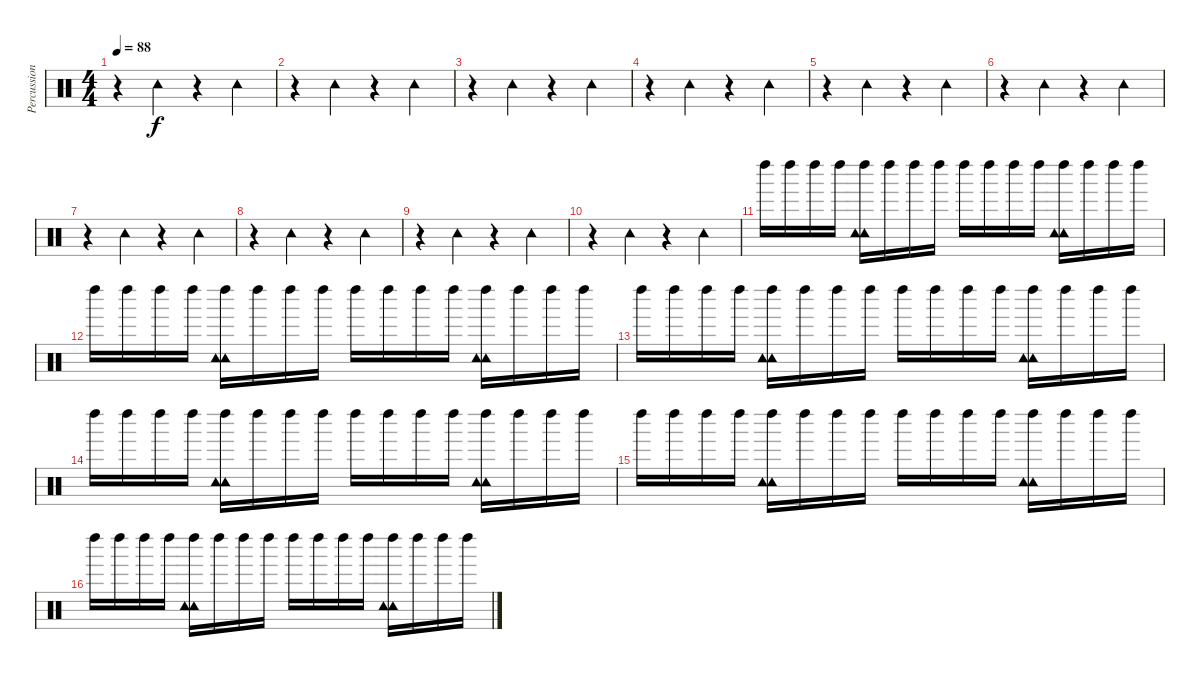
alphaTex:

\track ("Percussioni" "Percussion") {instrument percussion}
\staff {score}
\articulation defaults
\ts (4 4)
\tempo 88
\clef neutral
\ks c
r.4{dy f} "Tambourine (hit)".4 r.4 "Tambourine (hit)".4 |
r.4 "Tambourine (hit)".4 r.4 "Tambourine (hit)".4 |
r.4 "Tambourine (hit)".4 r.4 "Tambourine (hit)".4 |
r.4 "Tambourine (hit)".4 r.4 "Tambourine (hit)".4 |
r.4 "Tambourine (hit)".4 r.4 "Tambourine (hit)".4 |
r.4 "Tambourine (hit)".4 r.4 "Tambourine (hit)".4 |
r.4 "Tambourine (hit)".4 r.4 "Tambourine (hit)".4 |
r.4 "Tambourine (hit)".4 r.4 "Tambourine (hit)".4 |
r.4 "Tambourine (hit)".4 r.4 "Tambourine (hit)".4 |
r.4 "Tambourine (hit)".4 r.4 "Tambourine (hit)".4 |
"Left Maraca (hit)".16 "Left Maraca (hit)".16 "Left Maraca (hit)".16 "Left Maraca (hit)".16 ("Left Maraca (hit)" "Tambourine (hit)" "Tambourine (hit)").16 "Left Maraca (hit)".16 "Left Maraca (hit)".16 "Left Maraca (hit)".16 "Left Maraca (hit)".16 "Left Maraca (hit)".16 "Left Maraca (hit)".16 "Left Maraca (hit)".16 ("Left Maraca (hit)" "Tambourine (hit)" "Tambourine (hit)").16 "Left Maraca (hit)".16 "Left Maraca (hit)".16 "Left Maraca (hit)".16 |
"Left Maraca (hit)".16 "Left Maraca (hit)".16 "Left Maraca (hit)".16 "Left Maraca (hit)".16 ("Left Maraca (hit)" "Tambourine (hit)" "Tambourine (hit)").16 "Left Maraca (hit)".16 "Left Maraca (hit)".16 "Left Maraca (hit)".16 "Left Maraca (hit)".16 "Left Maraca (hit)".16 "Left Maraca (hit)".16 "Left Maraca (hit)".16 ("Left Maraca (hit)" "Tambourine (hit)" "Tambourine (hit)").16 "Left Maraca (hit)".16 "Left Maraca (hit)".16 "Left Maraca (hit)".16 |
"Left Maraca (hit)".16 "Left Maraca (hit)".16 "Left Maraca (hit)".16 "Left Maraca (hit)".16 ("Left Maraca (hit)" "Tambourine (hit)" "Tambourine (hit)").16 "Left Maraca (hit)".16 "Left Maraca (hit)".16 "Left Maraca (hit)".16 "Left Maraca (hit)".16 "Left Maraca (hit)".16 "Left Maraca (hit)".16 "Left Maraca (hit)".16 ("Left Maraca (hit)" "Tambourine (hit)" "Tambourine (hit)").16 "Left Maraca (hit)".16 "Left Maraca (hit)".16 "Left Maraca (hit)".16 |
"Left Maraca (hit)".16 "Left Maraca (hit)".16 "Left Maraca (hit)".16 "Left Maraca (hit)".16 ("Left Maraca (hit)" "Tambourine (hit)" "Tambourine (hit)").16 "Left Maraca (hit)".16 "Left Maraca (hit)".16 "Left Maraca (hit)".16 "Left Maraca (hit)".16 "Left Maraca (hit)".16 "Left Maraca (hit)".16 "Left Maraca (hit)".16 ("Left Maraca (hit)" "Tambourine (hit)" "Tambourine (hit)").16 "Left Maraca (hit)".16 "Left Maraca (hit)".16 "Left Maraca (hit)".16 |
"Left Maraca (hit)".16 "Left Maraca (hit)".16 "Left Maraca (hit)".16 "Left Maraca (hit)".16 ("Left Maraca (hit)" "Tambourine (hit)" "Tambourine (hit)").16 "Left Maraca (hit)".16 "Left Maraca (hit)".16 "Left Maraca (hit)".16 "Left Maraca (hit)".16 "Left Maraca (hit)".16 "Left Maraca (hit)".16 "Left Maraca (hit)".16 ("Left Maraca (hit)" "Tambourine (hit)" "Tambourine (hit)").16 "Left Maraca (hit)".16 "Left Maraca (hit)".16 "Left Maraca (hit)".16 |
"Left Maraca (hit)".16 "Left Maraca (hit)".16 "Left Maraca (hit)".16 "Left Maraca (hit)".16 ("Left Maraca (hit)" "Tambourine (hit)" "Tambourine (hit)").16 "Left Maraca (hit)".16 "Left Maraca (hit)".16 "Left Maraca (hit)".16 "Left Maraca (hit)".16 "Left Maraca (hit)".16 "Left Maraca (hit)".16 "Left Maraca (hit)".16 ("Left Maraca (hit)" "Tambourine (hit)" "Tambourine (hit)").16 "Left Maraca (hit)".16 "Left Maraca (hit)".16 "Left Maraca (hit)".16
